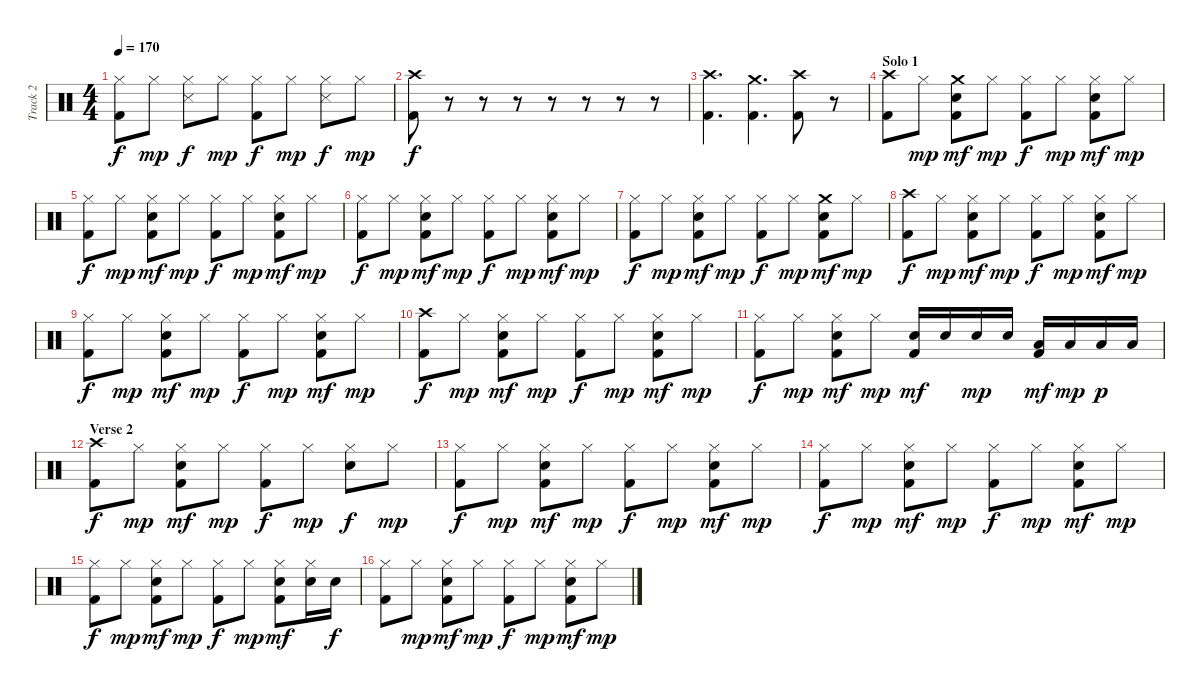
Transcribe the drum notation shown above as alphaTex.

\track ("Track 2" "Track 2") {instrument percussion}
\staff {score}
\articulation defaults
\ts (4 4)
\tempo 170
\clef neutral
\ks c
("Hi-Hat (closed)" "Kick (hit) 2").8{dy f} "Hi-Hat (closed)".8{dy mp} ("Hi-Hat (closed)" "Snare (side stick) 3").8{dy f} "Hi-Hat (closed)".8{dy mp} ("Hi-Hat (closed)" "Kick (hit) 2").8{dy f} "Hi-Hat (closed)".8{dy mp} ("Hi-Hat (closed)" "Snare (side stick) 3").8{dy f} "Hi-Hat (closed)".8{dy mp} |
("Crash high (hit)" "Kick (hit) 2").8{dy f} r.8 r.8 r.8 r.8 r.8 r.8 r.8 |
("Crash high (hit)" "Kick (hit) 2").4{d} ("Crash medium (hit)" "Kick (hit) 2").4{d} ("Crash high (hit)" "Kick (hit) 2").8 r.8 |
\section ("" "Solo 1")
("Crash high (hit)" "Kick (hit) 2").8 "Hi-Hat (closed)".8{dy mp} ("Crash medium (hit)" "Electric Snare (hit)" "Kick (hit) 2").8{dy mf} "Hi-Hat (closed)".8{dy mp} ("Hi-Hat (closed)" "Kick (hit) 2").8{dy f} "Hi-Hat (closed)".8{dy mp} ("Hi-Hat (closed)" "Electric Snare (hit)" "Kick (hit) 2").8{dy mf} "Hi-Hat (closed)".8{dy mp} |
("Hi-Hat (closed)" "Kick (hit) 2").8{dy f} "Hi-Hat (closed)".8{dy mp} ("Hi-Hat (closed)" "Electric Snare (hit)" "Kick (hit) 2").8{dy mf} "Hi-Hat (closed)".8{dy mp} ("Hi-Hat (closed)" "Kick (hit) 2").8{dy f} "Hi-Hat (closed)".8{dy mp} ("Hi-Hat (closed)" "Electric Snare (hit)" "Kick (hit) 2").8{dy mf} "Hi-Hat (closed)".8{dy mp} |
("Hi-Hat (closed)" "Kick (hit) 2").8{dy f} "Hi-Hat (closed)".8{dy mp} ("Hi-Hat (closed)" "Electric Snare (hit)" "Kick (hit) 2").8{dy mf} "Hi-Hat (closed)".8{dy mp} ("Hi-Hat (closed)" "Kick (hit) 2").8{dy f} "Hi-Hat (closed)".8{dy mp} ("Hi-Hat (closed)" "Electric Snare (hit)" "Kick (hit) 2").8{dy mf} "Hi-Hat (closed)".8{dy mp} |
("Hi-Hat (closed)" "Kick (hit) 2").8{dy f} "Hi-Hat (closed)".8{dy mp} ("Hi-Hat (closed)" "Electric Snare (hit)" "Kick (hit) 2").8{dy mf} "Hi-Hat (closed)".8{dy mp} ("Hi-Hat (closed)" "Kick (hit) 2").8{dy f} "Hi-Hat (closed)".8{dy mp} ("Crash medium (hit)" "Electric Snare (hit)" "Kick (hit) 2").8{dy mf} "Hi-Hat (closed)".8{dy mp} |
("Crash high (hit)" "Kick (hit) 2").8{dy f} "Hi-Hat (closed)".8{dy mp} ("Hi-Hat (closed)" "Electric Snare (hit)" "Kick (hit) 2").8{dy mf} "Hi-Hat (closed)".8{dy mp} ("Hi-Hat (closed)" "Kick (hit) 2").8{dy f} "Hi-Hat (closed)".8{dy mp} ("Hi-Hat (closed)" "Electric Snare (hit)" "Kick (hit) 2").8{dy mf} "Hi-Hat (closed)".8{dy mp} |
("Hi-Hat (closed)" "Kick (hit) 2").8{dy f} "Hi-Hat (closed)".8{dy mp} ("Hi-Hat (closed)" "Electric Snare (hit)" "Kick (hit) 2").8{dy mf} "Hi-Hat (closed)".8{dy mp} ("Hi-Hat (closed)" "Kick (hit) 2").8{dy f} "Hi-Hat (closed)".8{dy mp} ("Hi-Hat (closed)" "Electric Snare (hit)" "Kick (hit) 2").8{dy mf} "Hi-Hat (closed)".8{dy mp} |
("Crash high (hit)" "Kick (hit) 2").8{dy f} "Hi-Hat (closed)".8{dy mp} ("Hi-Hat (closed)" "Electric Snare (hit)" "Kick (hit) 2").8{dy mf} "Hi-Hat (closed)".8{dy mp} ("Hi-Hat (closed)" "Kick (hit) 2").8{dy f} "Hi-Hat (closed)".8{dy mp} ("Hi-Hat (closed)" "Electric Snare (hit)" "Kick (hit) 2").8{dy mf} "Hi-Hat (closed)".8{dy mp} |
("Hi-Hat (closed)" "Kick (hit) 2").8{dy f} "Hi-Hat (closed)".8{dy mp} ("Hi-Hat (closed)" "Electric Snare (hit)" "Kick (hit) 2").8{dy mf} "Hi-Hat (closed)".8{dy mp} ("Electric Snare (hit)" "Kick (hit) 2").16{dy mf} "Electric Snare (hit)".16 "Electric Snare (hit)".16{dy mp} "Electric Snare (hit)".16 ("Low Tom (hit)" "Kick (hit) 2").16{dy mf} "Low Tom (hit)".16{dy mp} "Low Tom (hit)".16{dy p} "Low Tom (hit)".16 |
\section ("" "Verse 2")
("Crash high (hit)" "Kick (hit) 2").8{dy f} "Hi-Hat (closed)".8{dy mp} ("Hi-Hat (closed)" "Electric Snare (hit)" "Kick (hit) 2").8{dy mf} "Hi-Hat (closed)".8{dy mp} ("Hi-Hat (closed)" "Kick (hit) 2").8{dy f} "Hi-Hat (closed)".8{dy mp} ("Hi-Hat (closed)" "Electric Snare (hit)").8{dy f} "Hi-Hat (closed)".8{dy mp} |
("Hi-Hat (closed)" "Kick (hit) 2").8{dy f} "Hi-Hat (closed)".8{dy mp} ("Hi-Hat (closed)" "Electric Snare (hit)" "Kick (hit) 2").8{dy mf} "Hi-Hat (closed)".8{dy mp} ("Hi-Hat (closed)" "Kick (hit) 2").8{dy f} "Hi-Hat (closed)".8{dy mp} ("Hi-Hat (closed)" "Electric Snare (hit)" "Kick (hit) 2").8{dy mf} "Hi-Hat (closed)".8{dy mp} |
("Hi-Hat (closed)" "Kick (hit) 2").8{dy f} "Hi-Hat (closed)".8{dy mp} ("Hi-Hat (closed)" "Electric Snare (hit)" "Kick (hit) 2").8{dy mf} "Hi-Hat (closed)".8{dy mp} ("Hi-Hat (closed)" "Kick (hit) 2").8{dy f} "Hi-Hat (closed)".8{dy mp} ("Hi-Hat (closed)" "Electric Snare (hit)" "Kick (hit) 2").8{dy mf} "Hi-Hat (closed)".8{dy mp} |
("Hi-Hat (closed)" "Kick (hit) 2").8{dy f} "Hi-Hat (closed)".8{dy mp} ("Hi-Hat (closed)" "Electric Snare (hit)" "Kick (hit) 2").8{dy mf} "Hi-Hat (closed)".8{dy mp} ("Hi-Hat (closed)" "Kick (hit) 2").8{dy f} "Hi-Hat (closed)".8{dy mp} ("Hi-Hat (closed)" "Electric Snare (hit)" "Kick (hit) 2").8{dy mf} ("Hi-Hat (closed)" "Electric Snare (hit)").16 "Electric Snare (hit)".16{dy f} |
("Hi-Hat (closed)" "Kick (hit) 2").8 "Hi-Hat (closed)".8{dy mp} ("Hi-Hat (closed)" "Electric Snare (hit)" "Kick (hit) 2").8{dy mf} "Hi-Hat (closed)".8{dy mp} ("Hi-Hat (closed)" "Kick (hit) 2").8{dy f} "Hi-Hat (closed)".8{dy mp} ("Hi-Hat (closed)" "Electric Snare (hit)" "Kick (hit) 2").8{dy mf} "Hi-Hat (closed)".8{dy mp}
